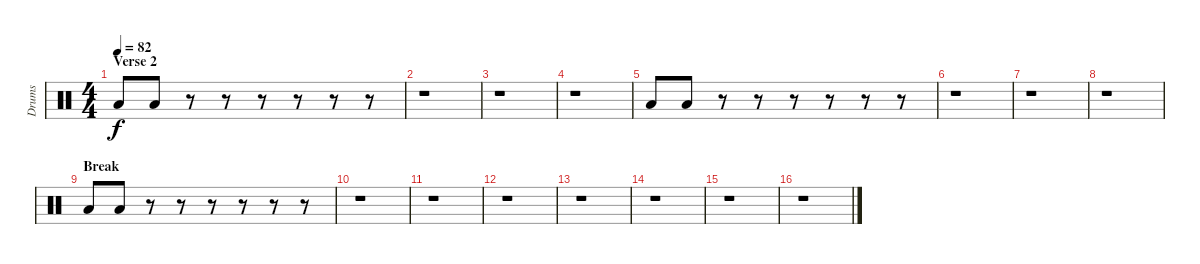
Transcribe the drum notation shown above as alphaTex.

\track ("Drums" "Drums") {instrument percussion}
\staff {score}
\articulation defaults
\ts (4 4)
\section ("" "Verse 2")
\tempo 82
\clef neutral
\ks c "Low Floor Tom (hit)".8{dy f} "Low Floor Tom (hit)".8
r.8 r.8 r.8 r.8 r.8 r.8 |
r.1 |
r.1 |
r.1 |
"Low Floor Tom (hit)".8 "Low Floor Tom (hit)".8 r.8 r.8 r.8 r.8 r.8 r.8 |
r.1 |
r.1 |
r.1 |
\section ("" "Break")
"Low Floor Tom (hit)".8 "Low Floor Tom (hit)".8 r.8 r.8 r.8 r.8 r.8 r.8 |
r.1 |
r.1 |
r.1 |
r.1 |
r.1 |
r.1 |
r.1
